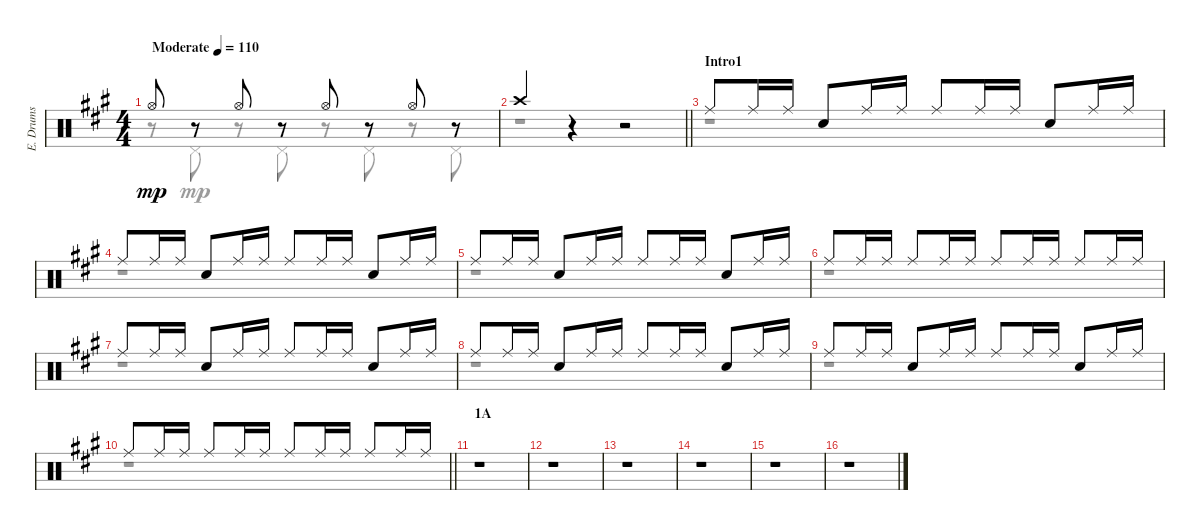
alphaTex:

\track ("E. Drums" "E. Drums") {instrument percussion}
\staff {score}
\articulation defaults
\voice
\ts (4 4)
\tempo (110 "Moderate")
\clef neutral
\ks a "Hi-Hat (open)".8{dy mp}
r.8 "Hi-Hat (open)".8 r.8 "Hi-Hat (open)".8 r.8 "Hi-Hat (open)".8 r.8 |
\barLineRight lightlight "Crash high (hit)".4
r.4 r.2 |
\section ("" "Intro1")
"Ride (middle)".8 "Ride (middle)".16 "Ride (middle)".16 "Electric Snare (hit)".8 "Ride (middle)".16 "Ride (middle)".16 "Ride (middle)".8 "Ride (middle)".16 "Ride (middle)".16 "Electric Snare (hit)".8 "Ride (middle)".16 "Ride (middle)".16 |
"Ride (middle)".8 "Ride (middle)".16 "Ride (middle)".16 "Electric Snare (hit)".8 "Ride (middle)".16 "Ride (middle)".16 "Ride (middle)".8 "Ride (middle)".16 "Ride (middle)".16 "Electric Snare (hit)".8 "Ride (middle)".16 "Ride (middle)".16 |
"Ride (middle)".8 "Ride (middle)".16 "Ride (middle)".16 "Electric Snare (hit)".8 "Ride (middle)".16 "Ride (middle)".16 "Ride (middle)".8 "Ride (middle)".16 "Ride (middle)".16 "Electric Snare (hit)".8 "Ride (middle)".16 "Ride (middle)".16 |
"Ride (middle)".8 "Ride (middle)".16 "Ride (middle)".16 "Ride (middle)".8 "Ride (middle)".16 "Ride (middle)".16 "Ride (middle)".8 "Ride (middle)".16 "Ride (middle)".16 "Ride (middle)".8 "Ride (middle)".16 "Ride (middle)".16 |
"Ride (middle)".8 "Ride (middle)".16 "Ride (middle)".16 "Electric Snare (hit)".8 "Ride (middle)".16 "Ride (middle)".16 "Ride (middle)".8 "Ride (middle)".16 "Ride (middle)".16 "Electric Snare (hit)".8 "Ride (middle)".16 "Ride (middle)".16 |
"Ride (middle)".8 "Ride (middle)".16 "Ride (middle)".16 "Electric Snare (hit)".8 "Ride (middle)".16 "Ride (middle)".16 "Ride (middle)".8 "Ride (middle)".16 "Ride (middle)".16 "Electric Snare (hit)".8 "Ride (middle)".16 "Ride (middle)".16 |
"Ride (middle)".8 "Ride (middle)".16 "Ride (middle)".16 "Electric Snare (hit)".8 "Ride (middle)".16 "Ride (middle)".16 "Ride (middle)".8 "Ride (middle)".16 "Ride (middle)".16 "Electric Snare (hit)".8 "Ride (middle)".16 "Ride (middle)".16 |
\barLineRight lightlight "Ride (middle)".8 "Ride (middle)".16 "Ride (middle)".16 "Ride (middle)".8 "Ride (middle)".16 "Ride (middle)".16 "Ride (middle)".8 "Ride (middle)".16 "Ride (middle)".16 "Ride (middle)".8 "Ride (middle)".16 "Ride (middle)".16
|
\section ("" "1A")
r.1 |
r.1 |
r.1 |
r.1 |
r.1 |
r.1
\voice
\clef neutral
\ottava regular
\simile none
\ks a
r.8{dy mp} "Pedal Hi-Hat (hit)".8 r.8 "Pedal Hi-Hat (hit)".8 r.8 "Pedal Hi-Hat (hit)".8 r.8 "Pedal Hi-Hat (hit)".8 |
\barLineRight lightlight
r.1 |
r.1 |
r.1 |
r.1 |
r.1 |
r.1 |
r.1 |
r.1 |
\barLineRight lightlight
r.1 |
r.1 |
r.1 |
r.1 |
r.1 |
r.1 |
r.1
